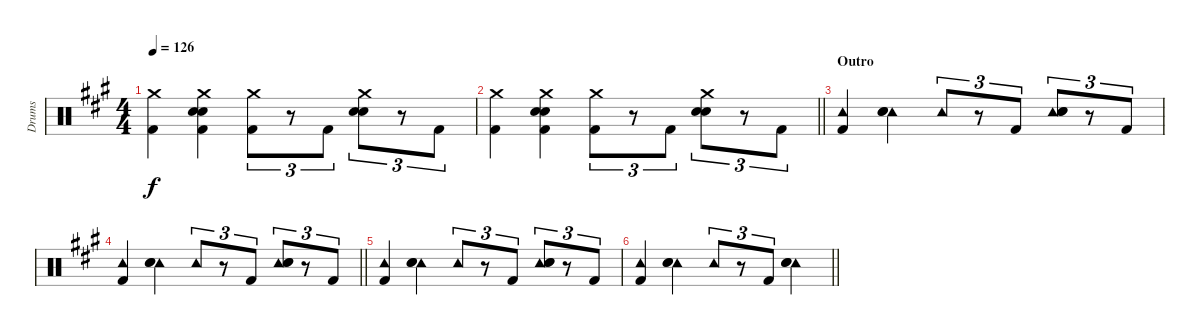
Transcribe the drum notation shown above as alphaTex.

\track ("Drums" "Drums") {instrument percussion}
\staff {score}
\articulation defaults
\ts (4 4)
\tempo 126
\clef neutral
\ks a
("Crash medium (hit)" "Kick (hit) 2").4{dy f} ("Crash medium (hit)" "Electric Snare (hit)" "Hand Clap (hit)" "Kick (hit) 2").4 ("Crash medium (hit)" "Kick (hit) 2").8{tu (3 2)} r.8{tu (3 2)} "Kick (hit) 2".8{tu (3 2)} ("Crash medium (hit)" "Electric Snare (hit)" "Hand Clap (hit)").8{tu (3 2)} r.8{tu (3 2)} "Kick (hit) 2".8{tu (3 2)} |
\barLineRight lightlight
("Crash medium (hit)" "Kick (hit) 2").4 ("Crash medium (hit)" "Electric Snare (hit)" "Hand Clap (hit)" "Kick (hit) 2").4 ("Crash medium (hit)" "Kick (hit) 2").8{tu (3 2)} r.8{tu (3 2)} "Kick (hit) 2".8{tu (3 2)} ("Crash medium (hit)" "Electric Snare (hit)" "Hand Clap (hit)").8{tu (3 2)} r.8{tu (3 2)} "Kick (hit) 2".8{tu (3 2)} |
\section ("" "Outro")
("Tambourine (hit)" "Kick (hit) 2").4 ("Tambourine (hit)" "Electric Snare (hit)" "Hand Clap (hit)").4 "Tambourine (hit)".8{tu (3 2)} r.8{tu (3 2)} "Kick (hit) 2".8{tu (3 2)} ("Tambourine (hit)" "Electric Snare (hit)" "Hand Clap (hit)").8{tu (3 2)} r.8{tu (3 2)} "Kick (hit) 2".8{tu (3 2)} |
\barLineRight lightlight
("Tambourine (hit)" "Kick (hit) 2").4 ("Tambourine (hit)" "Electric Snare (hit)" "Hand Clap (hit)").4 "Tambourine (hit)".8{tu (3 2)} r.8{tu (3 2)} "Kick (hit) 2".8{tu (3 2)} ("Tambourine (hit)" "Electric Snare (hit)" "Hand Clap (hit)").8{tu (3 2)} r.8{tu (3 2)} "Kick (hit) 2".8{tu (3 2)} |
("Tambourine (hit)" "Kick (hit) 2").4 ("Tambourine (hit)" "Electric Snare (hit)" "Hand Clap (hit)").4 "Tambourine (hit)".8{tu (3 2)} r.8{tu (3 2)} "Kick (hit) 2".8{tu (3 2)} ("Tambourine (hit)" "Electric Snare (hit)" "Hand Clap (hit)").8{tu (3 2)} r.8{tu (3 2)} "Kick (hit) 2".8{tu (3 2)} |
\barLineRight lightlight
("Tambourine (hit)" "Kick (hit) 2").4 ("Tambourine (hit)" "Electric Snare (hit)" "Hand Clap (hit)").4 "Tambourine (hit)".8{tu (3 2)} r.8{tu (3 2)} "Kick (hit) 2".8{tu (3 2)} ("Tambourine (hit)" "Electric Snare (hit)" "Hand Clap (hit)").4
